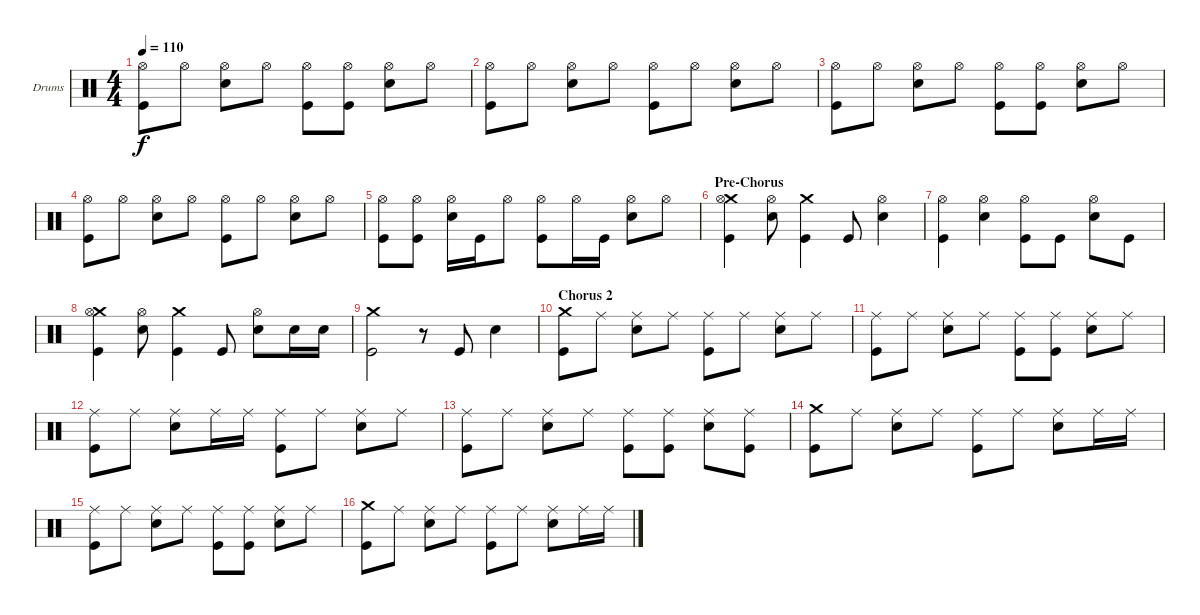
\bracketExtendMode groupsimilarinstruments
\firstSystemTrackNameOrientation horizontal
\otherSystemsTrackNameOrientation horizontal
\track ("Drums" "Drums") {instrument percussion}
\staff {score}
\articulation defaults
\ts (4 4)
\tempo 110
\clef neutral
\ks c
("Hi-Hat (open)" "Kick (hit)").8{dy f} "Hi-Hat (open)".8 ("Hi-Hat (open)" "Snare (hit) 2").8 "Hi-Hat (open)".8 ("Hi-Hat (open)" "Kick (hit)").8 ("Hi-Hat (open)" "Kick (hit)").8 ("Hi-Hat (open)" "Snare (hit) 2").8 "Hi-Hat (open)".8 |
("Hi-Hat (open)" "Kick (hit)").8 "Hi-Hat (open)".8 ("Hi-Hat (open)" "Snare (hit) 2").8 "Hi-Hat (open)".8 ("Hi-Hat (open)" "Kick (hit)").8 "Hi-Hat (open)".8 ("Hi-Hat (open)" "Snare (hit) 2").8 "Hi-Hat (open)".8 |
("Hi-Hat (open)" "Kick (hit)").8 "Hi-Hat (open)".8 ("Hi-Hat (open)" "Snare (hit) 2").8 "Hi-Hat (open)".8 ("Hi-Hat (open)" "Kick (hit)").8 ("Hi-Hat (open)" "Kick (hit)").8 ("Hi-Hat (open)" "Snare (hit) 2").8 "Hi-Hat (open)".8 |
("Hi-Hat (open)" "Kick (hit)").8 "Hi-Hat (open)".8 ("Hi-Hat (open)" "Snare (hit) 2").8 "Hi-Hat (open)".8 ("Hi-Hat (open)" "Kick (hit)").8 "Hi-Hat (open)".8 ("Hi-Hat (open)" "Snare (hit) 2").8 "Hi-Hat (open)".8 |
("Hi-Hat (open)" "Kick (hit)").8 ("Hi-Hat (open)" "Kick (hit)").8 ("Hi-Hat (open)" "Snare (hit) 2").16 "Kick (hit)".16 "Hi-Hat (open)".8 ("Hi-Hat (open)" "Kick (hit)").8 "Hi-Hat (open)".16 "Kick (hit)".16 ("Hi-Hat (open)" "Snare (hit) 2").8 "Hi-Hat (open)".8 |
\section ("" "Pre-Chorus")
("Crash medium (hit)" "Hi-Hat (open)" "Kick (hit)").4 ("Hi-Hat (open)" "Snare (hit) 2").8 ("Crash medium (hit)" "Kick (hit)").4 "Kick (hit)".8 ("Hi-Hat (open)" "Snare (hit) 2").4 |
("Hi-Hat (open)" "Kick (hit)").4 ("Hi-Hat (open)" "Snare (hit) 2").4 ("Hi-Hat (open)" "Kick (hit)").8 "Kick (hit)".8 ("Hi-Hat (open)" "Snare (hit) 2").8 "Kick (hit)".8 |
("Crash medium (hit)" "Hi-Hat (open)" "Kick (hit)").4 ("Hi-Hat (open)" "Snare (hit) 2").8 ("Crash medium (hit)" "Kick (hit)").4 "Kick (hit)".8 ("Hi-Hat (open)" "Snare (hit) 2").8 "Snare (hit) 2".16 "Snare (hit) 2".16 |
("Crash medium (hit)" "Kick (hit)").2 r.8 "Kick (hit)".8 "Snare (hit) 2".4 |
\section ("" "Chorus 2")
("Crash medium (hit)" "Kick (hit)").8 "Ride (middle)".8 ("Ride (middle)" "Snare (hit) 2").8 "Ride (middle)".8 ("Ride (middle)" "Kick (hit)").8 "Ride (middle)".8 ("Ride (middle)" "Snare (hit) 2").8 "Ride (middle)".8 |
("Ride (middle)" "Kick (hit)").8 "Ride (middle)".8 ("Ride (middle)" "Snare (hit) 2").8 "Ride (middle)".8 ("Ride (middle)" "Kick (hit)").8 ("Ride (middle)" "Kick (hit)").8 ("Ride (middle)" "Snare (hit) 2").8 "Ride (middle)".8 |
("Ride (middle)" "Kick (hit)").8 "Ride (middle)".8 ("Ride (middle)" "Snare (hit) 2").8 "Ride (middle)".16 "Ride (middle)".16 ("Ride (middle)" "Kick (hit)").8 "Ride (middle)".8 ("Ride (middle)" "Snare (hit) 2").8 "Ride (middle)".8 |
("Ride (middle)" "Kick (hit)").8 "Ride (middle)".8 ("Ride (middle)" "Snare (hit) 2").8 "Ride (middle)".8 ("Ride (middle)" "Kick (hit)").8 ("Ride (middle)" "Kick (hit)").8 ("Ride (middle)" "Snare (hit) 2").8 ("Ride (middle)" "Kick (hit)").8 |
("Crash medium (hit)" "Kick (hit)").8 "Ride (middle)".8 ("Ride (middle)" "Snare (hit) 2").8 "Ride (middle)".8 ("Ride (middle)" "Kick (hit)").8 "Ride (middle)".8 ("Ride (middle)" "Snare (hit) 2").8 "Ride (middle)".16 "Ride (middle)".16 |
("Ride (middle)" "Kick (hit)").8 "Ride (middle)".8 ("Ride (middle)" "Snare (hit) 2").8 "Ride (middle)".8 ("Ride (middle)" "Kick (hit)").8 ("Ride (middle)" "Kick (hit)").8 ("Ride (middle)" "Snare (hit) 2").8 "Ride (middle)".8 |
("Crash medium (hit)" "Kick (hit)").8 "Ride (middle)".8 ("Ride (middle)" "Snare (hit) 2").8 "Ride (middle)".8 ("Ride (middle)" "Kick (hit)").8 "Ride (middle)".8 ("Ride (middle)" "Snare (hit) 2").8 "Ride (middle)".16 "Ride (middle)".16
